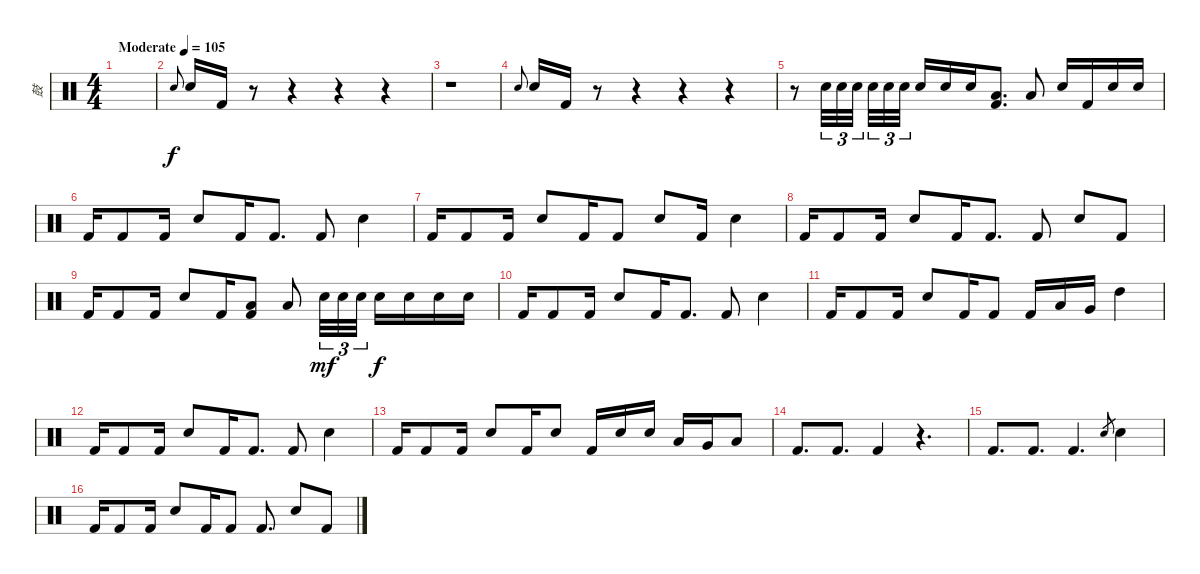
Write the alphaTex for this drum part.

\track ("鼓" "鼓") {instrument percussion}
\staff {score}
\articulation defaults
\ts (4 4)
\tempo (105 "Moderate")
\clef neutral
\ks c
|
"Electric Snare (hit)".8{gr onbeat} "Electric Snare (hit)".16 "Kick (hit) 2".16 r.8 r.4 r.4 r.4 |
r.1 |
"Electric Snare (hit)".8{gr onbeat} "Electric Snare (hit)".16 "Kick (hit) 2".16 r.8 r.4 r.4 r.4 |
r.8 "Electric Snare (hit)".32{tu (3 2)} "Electric Snare (hit)".32{tu (3 2)} "Electric Snare (hit)".32{tu (3 2) beam splitsecondary} "Electric Snare (hit)".32{tu (3 2)} "Electric Snare (hit)".32{tu (3 2)} "Electric Snare (hit)".32{tu (3 2)} "Electric Snare (hit)".16 "Electric Snare (hit)".16 "Electric Snare (hit)".16 ("Low Floor Tom (hit)" "Kick (hit) 2").8{d} "Low Tom (hit)".8 "Electric Snare (hit)".16 "Kick (hit) 2".16 "Electric Snare (hit)".16 "Electric Snare (hit)".16 |
"Kick (hit) 2".16 "Kick (hit) 2".8 "Kick (hit) 2".16 "Electric Snare (hit)".8 "Kick (hit) 2".16 "Kick (hit) 2".8{d} "Kick (hit) 2".8 "Electric Snare (hit)".4 |
"Kick (hit) 2".16 "Kick (hit) 2".8 "Kick (hit) 2".16 "Electric Snare (hit)".8 "Kick (hit) 2".16 "Kick (hit) 2".8 "Electric Snare (hit)".8 "Kick (hit) 2".16 "Electric Snare (hit)".4 |
"Kick (hit) 2".16 "Kick (hit) 2".8 "Kick (hit) 2".16 "Electric Snare (hit)".8 "Kick (hit) 2".16 "Kick (hit) 2".8{d} "Kick (hit) 2".8 "Electric Snare (hit)".8 "Kick (hit) 2".8 |
"Kick (hit) 2".16 "Kick (hit) 2".8 "Kick (hit) 2".16 "Electric Snare (hit)".8 "Kick (hit) 2".16 ("Kick (hit) 2" "Low Floor Tom (hit)").8 "Low Tom (hit)".8 "Electric Snare (hit)".32{tu (3 2) dy mf} "Electric Snare (hit)".32{tu (3 2)} "Electric Snare (hit)".32{tu (3 2)} "Electric Snare (hit)".16{dy f} "Electric Snare (hit)".16 "Electric Snare (hit)".16 "Electric Snare (hit)".16 |
"Kick (hit) 2".16 "Kick (hit) 2".8 "Kick (hit) 2".16 "Electric Snare (hit)".8 "Kick (hit) 2".16 "Kick (hit) 2".8{d} "Kick (hit) 2".8 "Electric Snare (hit)".4 |
"Kick (hit) 2".16 "Kick (hit) 2".8 "Kick (hit) 2".16 "Electric Snare (hit)".8 "Kick (hit) 2".16 "Kick (hit) 2".8 "Kick (hit) 2".16 "Low Tom (hit)".16 "Very Low Tom (hit)".16 "High Tom (hit)".4 |
"Kick (hit) 2".16 "Kick (hit) 2".8 "Kick (hit) 2".16 "Electric Snare (hit)".8 "Kick (hit) 2".16 "Kick (hit) 2".8{d} "Kick (hit) 2".8 "Electric Snare (hit)".4 |
"Kick (hit) 2".16 "Kick (hit) 2".8 "Kick (hit) 2".16 "Electric Snare (hit)".8 "Kick (hit) 2".16 "Electric Snare (hit)".8 "Kick (hit) 2".16 "Electric Snare (hit)".16 "Electric Snare (hit)".16 "Low Tom (hit)".16 "Very Low Tom (hit)".16 "Low Floor Tom (hit)".8 |
"Kick (hit) 2".8{d} "Kick (hit) 2".8{d} "Kick (hit) 2".4 r.4{d} |
"Kick (hit) 2".8{d} "Kick (hit) 2".8{d} "Kick (hit) 2".4{d} "Electric Snare (hit)".8{gr} "Electric Snare (hit)".4 |
"Kick (hit) 2".16 "Kick (hit) 2".8 "Kick (hit) 2".16 "Electric Snare (hit)".8 "Kick (hit) 2".16 "Kick (hit) 2".8 "Kick (hit) 2".8{d} "Electric Snare (hit)".8 "Kick (hit) 2".8
